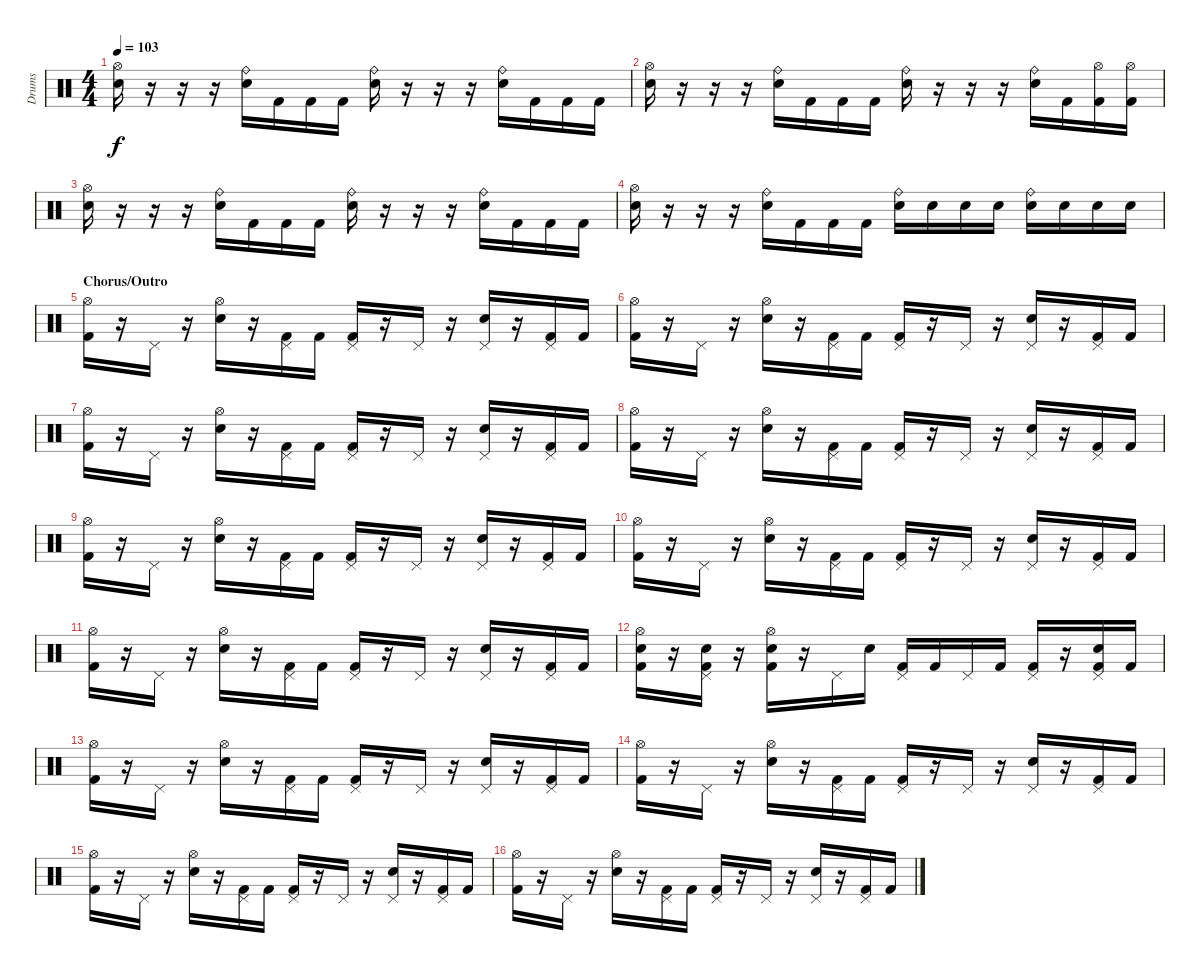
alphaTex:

\track ("Drums" "Drums") {instrument percussion}
\staff {score}
\articulation defaults
\ts (4 4)
\tempo 103
\clef neutral
\ks c
("Hi-Hat (open)" "Electric Snare (hit)").16{dy f} r.16 r.16 r.16 ("Ride (bell)" "Electric Snare (hit)").16 "Kick (hit) 2".16 "Kick (hit) 2".16 "Kick (hit) 2".16 ("Ride (bell)" "Electric Snare (hit)").16 r.16 r.16 r.16 ("Ride (bell)" "Electric Snare (hit)").16 "Kick (hit) 2".16 "Kick (hit) 2".16 "Kick (hit) 2".16 |
("Hi-Hat (open)" "Electric Snare (hit)").16 r.16 r.16 r.16 ("Ride (bell)" "Electric Snare (hit)").16 "Kick (hit) 2".16 "Kick (hit) 2".16 "Kick (hit) 2".16 ("Ride (bell)" "Electric Snare (hit)").16 r.16 r.16 r.16 ("Ride (bell)" "Electric Snare (hit)").16 "Kick (hit) 2".16 ("Hi-Hat (open)" "Kick (hit) 2").16 ("Hi-Hat (open)" "Kick (hit) 2").16 |
("Hi-Hat (open)" "Electric Snare (hit)").16 r.16 r.16 r.16 ("Ride (bell)" "Electric Snare (hit)").16 "Kick (hit) 2".16 "Kick (hit) 2".16 "Kick (hit) 2".16 ("Ride (bell)" "Electric Snare (hit)").16 r.16 r.16 r.16 ("Ride (bell)" "Electric Snare (hit)").16 "Kick (hit) 2".16 "Kick (hit) 2".16 "Kick (hit) 2".16 |
("Hi-Hat (open)" "Electric Snare (hit)").16 r.16 r.16 r.16 ("Ride (bell)" "Electric Snare (hit)").16 "Kick (hit) 2".16 "Kick (hit) 2".16 "Kick (hit) 2".16 ("Ride (bell)" "Electric Snare (hit)").16 "Electric Snare (hit)".16 "Snare (hit) 2".16 "Snare (hit) 2".16 ("Ride (bell)" "Snare (hit) 2").16 "Snare (hit) 2".16 "Snare (hit) 2".16 "Snare (hit) 2".16 |
\section ("" "Chorus/Outro")
("Hi-Hat (open)" "Kick (hit) 2").16 r.16 "Pedal Hi-Hat (hit)".16 r.16 ("Hi-Hat (open)" "Electric Snare (hit)").16 r.16 ("Pedal Hi-Hat (hit)" "Kick (hit) 2").16 "Kick (hit) 2".16 ("Pedal Hi-Hat (hit)" "Kick (hit) 2").16 r.16 "Pedal Hi-Hat (hit)".16 r.16 ("Pedal Hi-Hat (hit)" "Electric Snare (hit)").16 r.16 ("Pedal Hi-Hat (hit)" "Kick (hit) 2").16 "Kick (hit) 2".16 |
("Hi-Hat (open)" "Kick (hit) 2").16 r.16 "Pedal Hi-Hat (hit)".16 r.16 ("Hi-Hat (open)" "Electric Snare (hit)").16 r.16 ("Pedal Hi-Hat (hit)" "Kick (hit) 2").16 "Kick (hit) 2".16 ("Pedal Hi-Hat (hit)" "Kick (hit) 2").16 r.16 "Pedal Hi-Hat (hit)".16 r.16 ("Pedal Hi-Hat (hit)" "Electric Snare (hit)").16 r.16 ("Pedal Hi-Hat (hit)" "Kick (hit) 2").16 "Kick (hit) 2".16 |
("Hi-Hat (open)" "Kick (hit) 2").16 r.16 "Pedal Hi-Hat (hit)".16 r.16 ("Hi-Hat (open)" "Electric Snare (hit)").16 r.16 ("Pedal Hi-Hat (hit)" "Kick (hit) 2").16 "Kick (hit) 2".16 ("Pedal Hi-Hat (hit)" "Kick (hit) 2").16 r.16 "Pedal Hi-Hat (hit)".16 r.16 ("Pedal Hi-Hat (hit)" "Electric Snare (hit)").16 r.16 ("Pedal Hi-Hat (hit)" "Kick (hit) 2").16 "Kick (hit) 2".16 |
("Hi-Hat (open)" "Kick (hit) 2").16 r.16 "Pedal Hi-Hat (hit)".16 r.16 ("Hi-Hat (open)" "Electric Snare (hit)").16 r.16 ("Pedal Hi-Hat (hit)" "Kick (hit) 2").16 "Kick (hit) 2".16 ("Pedal Hi-Hat (hit)" "Kick (hit) 2").16 r.16 "Pedal Hi-Hat (hit)".16 r.16 ("Pedal Hi-Hat (hit)" "Electric Snare (hit)").16 r.16 ("Pedal Hi-Hat (hit)" "Kick (hit) 2").16 "Kick (hit) 2".16 |
("Hi-Hat (open)" "Kick (hit) 2").16 r.16 "Pedal Hi-Hat (hit)".16 r.16 ("Hi-Hat (open)" "Electric Snare (hit)").16 r.16 ("Pedal Hi-Hat (hit)" "Kick (hit) 2").16 "Kick (hit) 2".16 ("Pedal Hi-Hat (hit)" "Kick (hit) 2").16 r.16 "Pedal Hi-Hat (hit)".16 r.16 ("Pedal Hi-Hat (hit)" "Electric Snare (hit)").16 r.16 ("Pedal Hi-Hat (hit)" "Kick (hit) 2").16 "Kick (hit) 2".16 |
("Hi-Hat (open)" "Kick (hit) 2").16 r.16 "Pedal Hi-Hat (hit)".16 r.16 ("Hi-Hat (open)" "Electric Snare (hit)").16 r.16 ("Pedal Hi-Hat (hit)" "Kick (hit) 2").16 "Kick (hit) 2".16 ("Pedal Hi-Hat (hit)" "Kick (hit) 2").16 r.16 "Pedal Hi-Hat (hit)".16 r.16 ("Pedal Hi-Hat (hit)" "Electric Snare (hit)").16 r.16 ("Pedal Hi-Hat (hit)" "Kick (hit) 2").16 "Kick (hit) 2".16 |
("Hi-Hat (open)" "Kick (hit) 2").16 r.16 "Pedal Hi-Hat (hit)".16 r.16 ("Hi-Hat (open)" "Electric Snare (hit)").16 r.16 ("Pedal Hi-Hat (hit)" "Kick (hit) 2").16 "Kick (hit) 2".16 ("Pedal Hi-Hat (hit)" "Kick (hit) 2").16 r.16 "Pedal Hi-Hat (hit)".16 r.16 ("Pedal Hi-Hat (hit)" "Electric Snare (hit)").16 r.16 ("Pedal Hi-Hat (hit)" "Kick (hit) 2").16 "Kick (hit) 2".16 |
("Hi-Hat (open)" "Electric Snare (hit)" "Kick (hit) 2").16 r.16 ("Pedal Hi-Hat (hit)" "Electric Snare (hit)" "Kick (hit) 2").16 r.16 ("Hi-Hat (open)" "Electric Snare (hit)" "Kick (hit) 2").16 r.16 "Pedal Hi-Hat (hit)".16 "Electric Snare (hit)".16 ("Pedal Hi-Hat (hit)" "Kick (hit) 2").16 "Kick (hit) 2".16 "Pedal Hi-Hat (hit)".16 "Kick (hit) 2".16 ("Pedal Hi-Hat (hit)" "Kick (hit) 2").16 r.16 ("Pedal Hi-Hat (hit)" "Electric Snare (hit)" "Kick (hit) 2").16 "Kick (hit) 2".16 |
("Hi-Hat (open)" "Kick (hit) 2").16 r.16 "Pedal Hi-Hat (hit)".16 r.16 ("Hi-Hat (open)" "Electric Snare (hit)").16 r.16 ("Pedal Hi-Hat (hit)" "Kick (hit) 2").16 "Kick (hit) 2".16 ("Pedal Hi-Hat (hit)" "Kick (hit) 2").16 r.16 "Pedal Hi-Hat (hit)".16 r.16 ("Pedal Hi-Hat (hit)" "Electric Snare (hit)").16 r.16 ("Pedal Hi-Hat (hit)" "Kick (hit) 2").16 "Kick (hit) 2".16 |
("Hi-Hat (open)" "Kick (hit) 2").16 r.16 "Pedal Hi-Hat (hit)".16 r.16 ("Hi-Hat (open)" "Electric Snare (hit)").16 r.16 ("Pedal Hi-Hat (hit)" "Kick (hit) 2").16 "Kick (hit) 2".16 ("Pedal Hi-Hat (hit)" "Kick (hit) 2").16 r.16 "Pedal Hi-Hat (hit)".16 r.16 ("Pedal Hi-Hat (hit)" "Electric Snare (hit)").16 r.16 ("Pedal Hi-Hat (hit)" "Kick (hit) 2").16 "Kick (hit) 2".16 |
("Hi-Hat (open)" "Kick (hit) 2").16 r.16 "Pedal Hi-Hat (hit)".16 r.16 ("Hi-Hat (open)" "Electric Snare (hit)").16 r.16 ("Pedal Hi-Hat (hit)" "Kick (hit) 2").16 "Kick (hit) 2".16 ("Pedal Hi-Hat (hit)" "Kick (hit) 2").16 r.16 "Pedal Hi-Hat (hit)".16 r.16 ("Pedal Hi-Hat (hit)" "Electric Snare (hit)").16 r.16 ("Pedal Hi-Hat (hit)" "Kick (hit) 2").16 "Kick (hit) 2".16 |
("Hi-Hat (open)" "Kick (hit) 2").16 r.16 "Pedal Hi-Hat (hit)".16 r.16 ("Hi-Hat (open)" "Electric Snare (hit)").16 r.16 ("Pedal Hi-Hat (hit)" "Kick (hit) 2").16 "Kick (hit) 2".16 ("Pedal Hi-Hat (hit)" "Kick (hit) 2").16 r.16 "Pedal Hi-Hat (hit)".16 r.16 ("Pedal Hi-Hat (hit)" "Electric Snare (hit)").16 r.16 ("Pedal Hi-Hat (hit)" "Kick (hit) 2").16 "Kick (hit) 2".16
